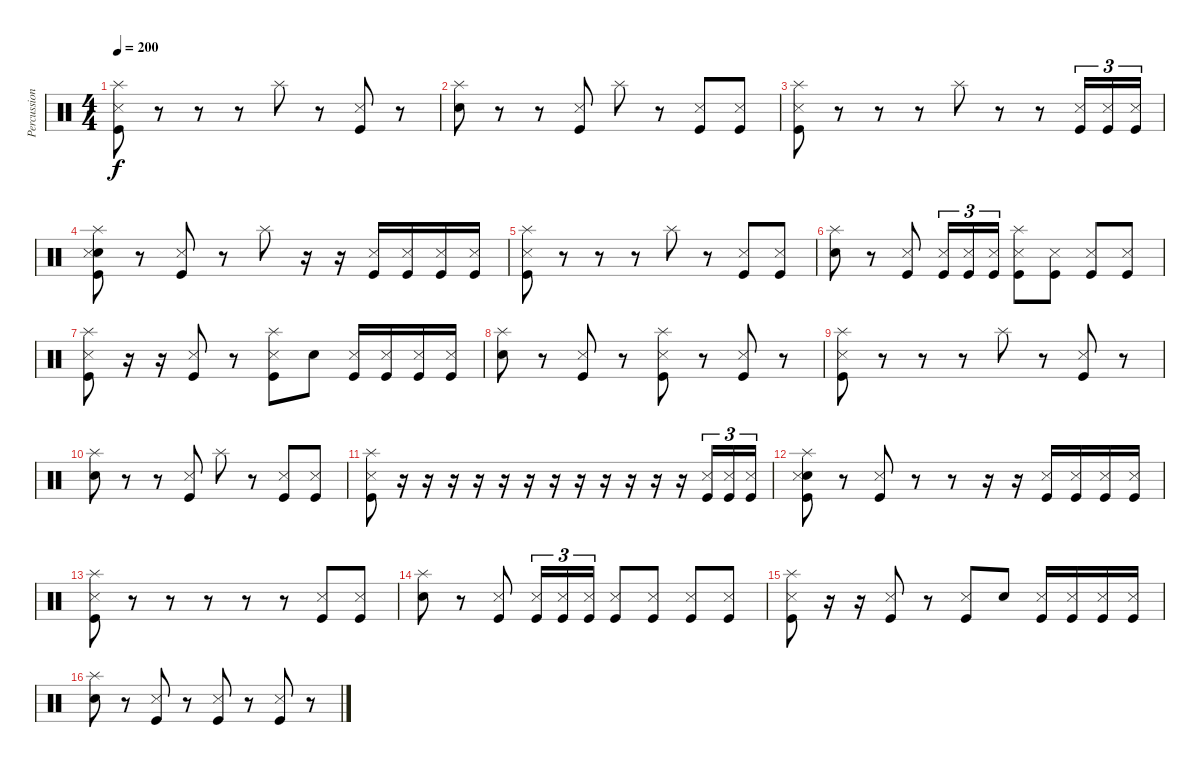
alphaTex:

\track ("Percussion" "Percussion") {instrument percussion}
\staff {score}
\articulation defaults
\ts (4 4)
\tempo 200
\clef neutral
\ks c
("Splash (hit)" "Metronome (hit)" "Kick (hit)").8{dy f} r.8 r.8 r.8 "Splash (hit)".8 r.8 ("Kick (hit)" "Metronome (hit)").8 r.8 |
("Splash (hit)" "Electric Snare (hit)").8 r.8 r.8 ("Metronome (hit)" "Kick (hit)").8 "Splash (hit)".8 r.8 ("Metronome (hit)" "Kick (hit)").8 ("Metronome (hit)" "Kick (hit)").8 |
("Splash (hit)" "Metronome (hit)" "Kick (hit)").8 r.8 r.8 r.8 "Splash (hit)".8 r.8 r.8 ("Metronome (hit)" "Kick (hit)").16{tu (3 2)} ("Metronome (hit)" "Kick (hit)").16{tu (3 2)} ("Metronome (hit)" "Kick (hit)").16{tu (3 2)} |
("Splash (hit)" "Electric Snare (hit)" "Metronome (hit)" "Kick (hit)").8 r.8 ("Metronome (hit)" "Kick (hit)").8 r.8 "Splash (hit)".8 r.16 r.16 ("Metronome (hit)" "Kick (hit)").16 ("Metronome (hit)" "Kick (hit)").16 ("Metronome (hit)" "Kick (hit)").16 ("Metronome (hit)" "Kick (hit)").16 |
("Splash (hit)" "Metronome (hit)" "Kick (hit)").8 r.8 r.8 r.8 "Splash (hit)".8 r.8 ("Metronome (hit)" "Kick (hit)").8 ("Metronome (hit)" "Kick (hit)").8 |
("Splash (hit)" "Electric Snare (hit)").8 r.8 ("Metronome (hit)" "Kick (hit)").8 ("Metronome (hit)" "Kick (hit)").16{tu (3 2)} ("Metronome (hit)" "Kick (hit)").16{tu (3 2)} ("Metronome (hit)" "Kick (hit)").16{tu (3 2)} ("Splash (hit)" "Metronome (hit)" "Kick (hit)").8 ("Metronome (hit)" "Kick (hit)").8 ("Metronome (hit)" "Kick (hit)").8 ("Metronome (hit)" "Kick (hit)").8 |
("Splash (hit)" "Metronome (hit)" "Kick (hit)").8 r.16 r.16 ("Metronome (hit)" "Kick (hit)").8 r.8 ("Splash (hit)" "Metronome (hit)" "Kick (hit)").8 "Electric Snare (hit)".8 ("Metronome (hit)" "Kick (hit)").16 ("Metronome (hit)" "Kick (hit)").16 ("Metronome (hit)" "Kick (hit)").16 ("Metronome (hit)" "Kick (hit)").16 |
("Splash (hit)" "Electric Snare (hit)").8 r.8 ("Metronome (hit)" "Kick (hit)").8 r.8 ("Splash (hit)" "Metronome (hit)" "Kick (hit)").8 r.8 ("Metronome (hit)" "Kick (hit)").8 r.8 |
("Splash (hit)" "Metronome (hit)" "Kick (hit)").8 r.8 r.8 r.8 "Splash (hit)".8 r.8 ("Kick (hit)" "Metronome (hit)").8 r.8 |
("Splash (hit)" "Electric Snare (hit)").8 r.8 r.8 ("Metronome (hit)" "Kick (hit)").8 "Splash (hit)".8 r.8 ("Metronome (hit)" "Kick (hit)").8 ("Metronome (hit)" "Kick (hit)").8 |
("Splash (hit)" "Metronome (hit)" "Kick (hit)").8 r.16 r.16 r.16 r.16 r.16 r.16 r.16 r.16 r.16 r.16 r.16 r.16 ("Metronome (hit)" "Kick (hit)").16{tu (3 2)} ("Metronome (hit)" "Kick (hit)").16{tu (3 2)} ("Metronome (hit)" "Kick (hit)").16{tu (3 2)} |
("Splash (hit)" "Electric Snare (hit)" "Metronome (hit)" "Kick (hit)").8 r.8 ("Metronome (hit)" "Kick (hit)").8 r.8 r.8 r.16 r.16 ("Metronome (hit)" "Kick (hit)").16 ("Metronome (hit)" "Kick (hit)").16 ("Metronome (hit)" "Kick (hit)").16 ("Metronome (hit)" "Kick (hit)").16 |
("Splash (hit)" "Metronome (hit)" "Kick (hit)").8 r.8 r.8 r.8 r.8 r.8 ("Metronome (hit)" "Kick (hit)").8 ("Metronome (hit)" "Kick (hit)").8 |
("Splash (hit)" "Electric Snare (hit)").8 r.8 ("Metronome (hit)" "Kick (hit)").8 ("Metronome (hit)" "Kick (hit)").16{tu (3 2)} ("Metronome (hit)" "Kick (hit)").16{tu (3 2)} ("Metronome (hit)" "Kick (hit)").16{tu (3 2)} ("Metronome (hit)" "Kick (hit)").8 ("Metronome (hit)" "Kick (hit)").8 ("Metronome (hit)" "Kick (hit)").8 ("Metronome (hit)" "Kick (hit)").8 |
("Splash (hit)" "Metronome (hit)" "Kick (hit)").8 r.16 r.16 ("Metronome (hit)" "Kick (hit)").8 r.8 ("Metronome (hit)" "Kick (hit)").8 "Electric Snare (hit)".8 ("Metronome (hit)" "Kick (hit)").16 ("Metronome (hit)" "Kick (hit)").16 ("Metronome (hit)" "Kick (hit)").16 ("Metronome (hit)" "Kick (hit)").16 |
("Splash (hit)" "Electric Snare (hit)").8 r.8 ("Metronome (hit)" "Kick (hit)").8 r.8 ("Metronome (hit)" "Kick (hit)").8 r.8 ("Metronome (hit)" "Kick (hit)").8 r.8
